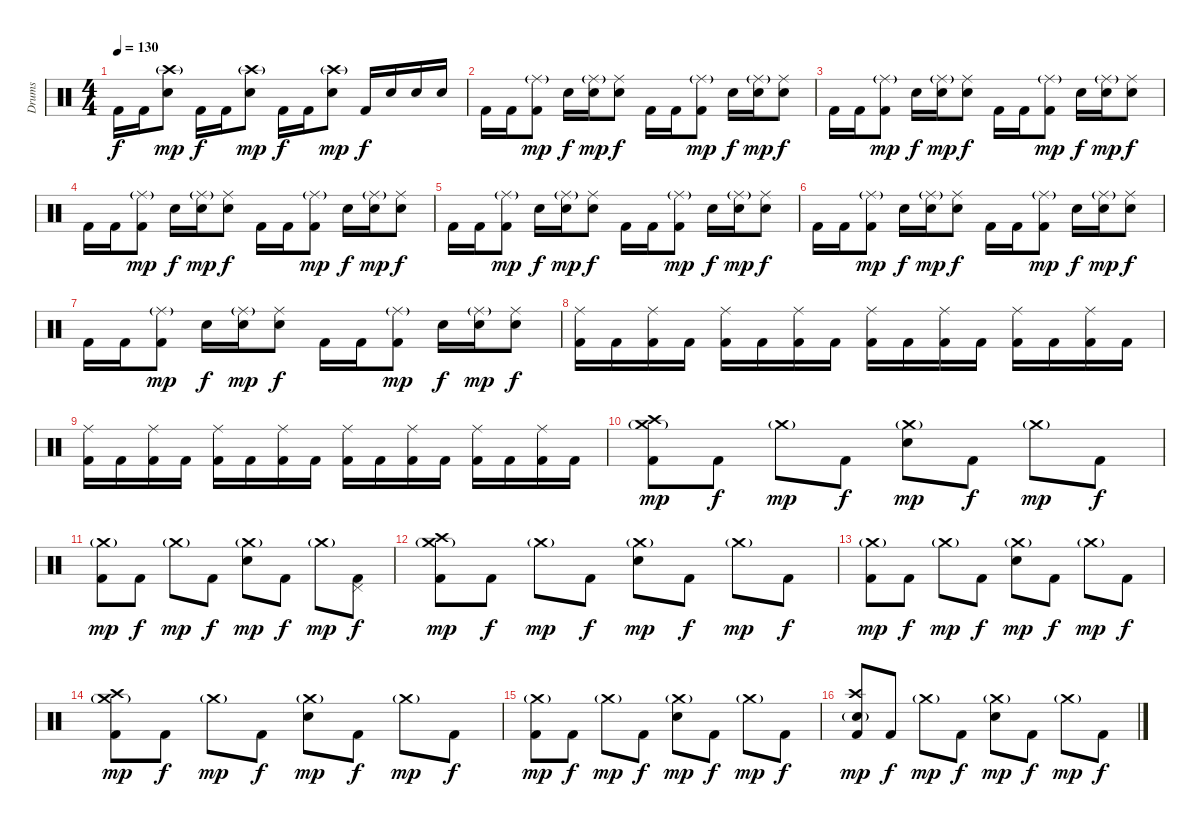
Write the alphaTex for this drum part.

\track ("Drums" "Drums") {instrument percussion}
\staff {score}
\articulation defaults
\ts (4 4)
\tempo 130
\clef neutral
\ks c "Kick (hit) 2".16{dy f} "Kick (hit) 2".16
("Crash high (hit)"{g} "Electric Snare (hit)").8{dy mp} "Kick (hit) 2".16{dy f} "Kick (hit) 2".16 ("Crash high (hit)"{g} "Electric Snare (hit)").8{dy mp} "Kick (hit) 2".16{dy f} "Kick (hit) 2".16 ("Crash high (hit)"{g} "Electric Snare (hit)").8{dy mp} "Kick (hit) 2".16{dy f} "Electric Snare (hit)".16 "Electric Snare (hit)".16 "Electric Snare (hit)".16 |
"Kick (hit) 2".16 "Kick (hit) 2".16 ("Ride (middle)"{g} "Kick (hit) 2").8{dy mp} "Snare (hit) 2".16{dy f} ("Ride (middle)"{g} "Snare (hit) 2").16{dy mp} ("Ride (middle)" "Snare (hit) 2").8{dy f} "Kick (hit) 2".16 "Kick (hit) 2".16 ("Ride (middle)"{g} "Kick (hit) 2").8{dy mp} "Snare (hit) 2".16{dy f} ("Ride (middle)"{g} "Snare (hit) 2").16{dy mp} ("Ride (middle)" "Snare (hit) 2").8{dy f} |
"Kick (hit) 2".16 "Kick (hit) 2".16 ("Ride (middle)"{g} "Kick (hit) 2").8{dy mp} "Snare (hit) 2".16{dy f} ("Ride (middle)"{g} "Snare (hit) 2").16{dy mp} ("Ride (middle)" "Snare (hit) 2").8{dy f} "Kick (hit) 2".16 "Kick (hit) 2".16 ("Ride (middle)"{g} "Kick (hit) 2").8{dy mp} "Snare (hit) 2".16{dy f} ("Ride (middle)"{g} "Snare (hit) 2").16{dy mp} ("Ride (middle)" "Snare (hit) 2").8{dy f} |
"Kick (hit) 2".16 "Kick (hit) 2".16 ("Ride (middle)"{g} "Kick (hit) 2").8{dy mp} "Snare (hit) 2".16{dy f} ("Ride (middle)"{g} "Snare (hit) 2").16{dy mp} ("Ride (middle)" "Snare (hit) 2").8{dy f} "Kick (hit) 2".16 "Kick (hit) 2".16 ("Ride (middle)"{g} "Kick (hit) 2").8{dy mp} "Snare (hit) 2".16{dy f} ("Ride (middle)"{g} "Snare (hit) 2").16{dy mp} ("Ride (middle)" "Snare (hit) 2").8{dy f} |
"Kick (hit) 2".16 "Kick (hit) 2".16 ("Ride (middle)"{g} "Kick (hit) 2").8{dy mp} "Snare (hit) 2".16{dy f} ("Ride (middle)"{g} "Snare (hit) 2").16{dy mp} ("Ride (middle)" "Snare (hit) 2").8{dy f} "Kick (hit) 2".16 "Kick (hit) 2".16 ("Ride (middle)"{g} "Kick (hit) 2").8{dy mp} "Snare (hit) 2".16{dy f} ("Ride (middle)"{g} "Snare (hit) 2").16{dy mp} ("Ride (middle)" "Snare (hit) 2").8{dy f} |
"Kick (hit) 2".16 "Kick (hit) 2".16 ("Ride (middle)"{g} "Kick (hit) 2").8{dy mp} "Snare (hit) 2".16{dy f} ("Ride (middle)"{g} "Snare (hit) 2").16{dy mp} ("Ride (middle)" "Snare (hit) 2").8{dy f} "Kick (hit) 2".16 "Kick (hit) 2".16 ("Ride (middle)"{g} "Kick (hit) 2").8{dy mp} "Snare (hit) 2".16{dy f} ("Ride (middle)"{g} "Snare (hit) 2").16{dy mp} ("Ride (middle)" "Snare (hit) 2").8{dy f} |
"Kick (hit) 2".16 "Kick (hit) 2".16 ("Ride (middle)"{g} "Kick (hit) 2").8{dy mp} "Snare (hit) 2".16{dy f} ("Ride (middle)"{g} "Snare (hit) 2").16{dy mp} ("Ride (middle)" "Snare (hit) 2").8{dy f} "Kick (hit) 2".16 "Kick (hit) 2".16 ("Ride (middle)"{g} "Kick (hit) 2").8{dy mp} "Snare (hit) 2".16{dy f} ("Ride (middle)"{g} "Snare (hit) 2").16{dy mp} ("Ride (middle)" "Snare (hit) 2").8{dy f} |
("Ride (middle)" "Kick (hit) 2").16 "Kick (hit) 2".16 ("Ride (middle)" "Kick (hit) 2").16 "Kick (hit) 2".16 ("Ride (middle)" "Kick (hit) 2").16 "Kick (hit) 2".16 ("Ride (middle)" "Kick (hit) 2").16 "Kick (hit) 2".16 ("Ride (middle)" "Kick (hit) 2").16 "Kick (hit) 2".16 ("Ride (middle)" "Kick (hit) 2").16 "Kick (hit) 2".16 ("Ride (middle)" "Kick (hit) 2").16 "Kick (hit) 2".16 ("Ride (middle)" "Kick (hit) 2").16 "Kick (hit) 2".16 |
("Ride (middle)" "Kick (hit) 2").16 "Kick (hit) 2".16 ("Ride (middle)" "Kick (hit) 2").16 "Kick (hit) 2".16 ("Ride (middle)" "Kick (hit) 2").16 "Kick (hit) 2".16 ("Ride (middle)" "Kick (hit) 2").16 "Kick (hit) 2".16 ("Ride (middle)" "Kick (hit) 2").16 "Kick (hit) 2".16 ("Ride (middle)" "Kick (hit) 2").16 "Kick (hit) 2".16 ("Ride (middle)" "Kick (hit) 2").16 "Kick (hit) 2".16 ("Ride (middle)" "Kick (hit) 2").16 "Kick (hit) 2".16 |
("Crash high (hit)" "Crash medium (hit)"{g} "Kick (hit) 2").8{dy mp} "Kick (hit) 2".8{dy f} "Crash medium (hit)"{g}.8{dy mp} "Kick (hit) 2".8{dy f} ("Crash medium (hit)"{g} "Electric Snare (hit)").8{dy mp} "Kick (hit) 2".8{dy f} "Crash medium (hit)"{g}.8{dy mp} "Kick (hit) 2".8{dy f} |
("Crash medium (hit)"{g} "Kick (hit) 2").8{dy mp} "Kick (hit) 2".8{dy f} "Crash medium (hit)"{g}.8{dy mp} "Kick (hit) 2".8{dy f} ("Crash medium (hit)"{g} "Electric Snare (hit)").8{dy mp} "Kick (hit) 2".8{dy f} "Crash medium (hit)"{g}.8{dy mp} ("Pedal Hi-Hat (hit)" "Kick (hit) 2").8{dy f} |
("Crash high (hit)" "Crash medium (hit)"{g} "Kick (hit) 2").8{dy mp} "Kick (hit) 2".8{dy f} "Crash medium (hit)"{g}.8{dy mp} "Kick (hit) 2".8{dy f} ("Crash medium (hit)"{g} "Electric Snare (hit)").8{dy mp} "Kick (hit) 2".8{dy f} "Crash medium (hit)"{g}.8{dy mp} "Kick (hit) 2".8{dy f} |
("Crash medium (hit)"{g} "Kick (hit) 2").8{dy mp} "Kick (hit) 2".8{dy f} "Crash medium (hit)"{g}.8{dy mp} "Kick (hit) 2".8{dy f} ("Crash medium (hit)"{g} "Electric Snare (hit)").8{dy mp} "Kick (hit) 2".8{dy f} "Crash medium (hit)"{g}.8{dy mp} "Kick (hit) 2".8{dy f} |
("Crash high (hit)" "Crash medium (hit)"{g} "Kick (hit) 2").8{dy mp} "Kick (hit) 2".8{dy f} "Crash medium (hit)"{g}.8{dy mp} "Kick (hit) 2".8{dy f} ("Crash medium (hit)"{g} "Electric Snare (hit)").8{dy mp} "Kick (hit) 2".8{dy f} "Crash medium (hit)"{g}.8{dy mp} "Kick (hit) 2".8{dy f} |
("Crash medium (hit)"{g} "Kick (hit) 2").8{dy mp} "Kick (hit) 2".8{dy f} "Crash medium (hit)"{g}.8{dy mp} "Kick (hit) 2".8{dy f} ("Crash medium (hit)"{g} "Electric Snare (hit)").8{dy mp} "Kick (hit) 2".8{dy f} "Crash medium (hit)"{g}.8{dy mp} "Kick (hit) 2".8{dy f} |
("Crash high (hit)" "Electric Snare (hit)"{g} "Kick (hit) 2").8{dy mp} "Kick (hit) 2".8{dy f} "Crash medium (hit)"{g}.8{dy mp} "Kick (hit) 2".8{dy f} ("Crash medium (hit)"{g} "Electric Snare (hit)").8{dy mp} "Kick (hit) 2".8{dy f} "Crash medium (hit)"{g}.8{dy mp} "Kick (hit) 2".8{dy f}
